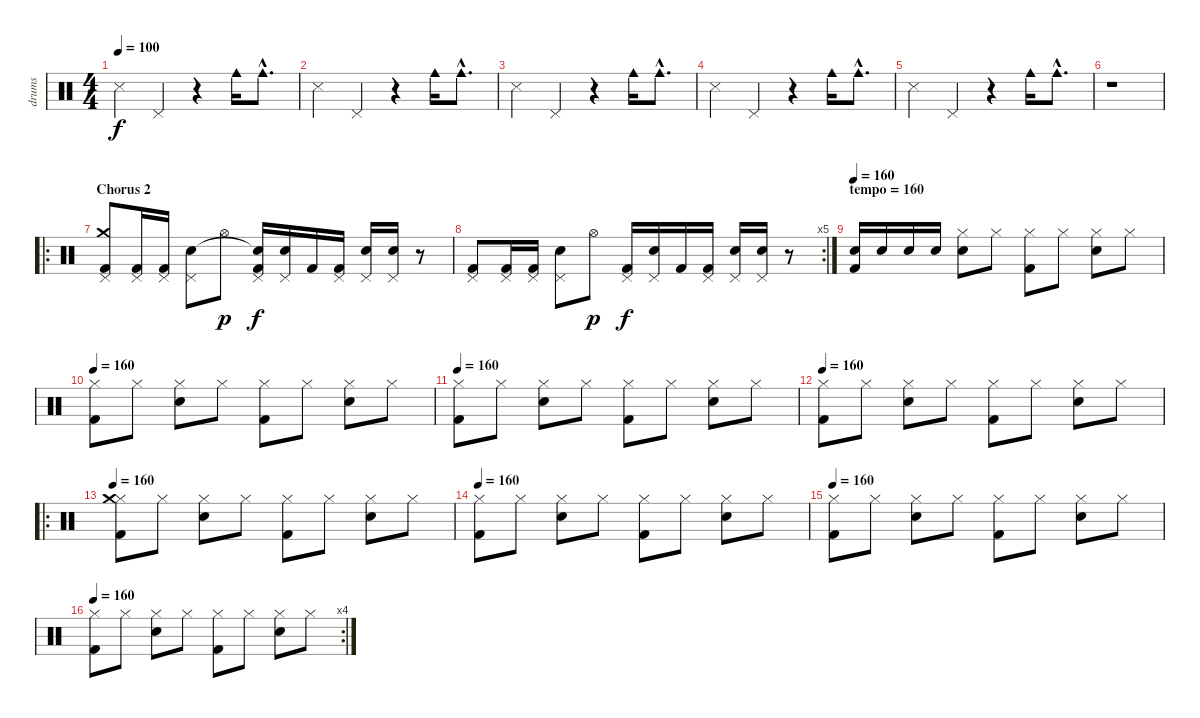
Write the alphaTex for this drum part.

\track ("drums" "drums") {instrument percussion}
\staff {score}
\articulation defaults
\ts (4 4)
\tempo 100
\clef neutral
\ks c "Snare (side stick) 3".4{dy f} "Pedal Hi-Hat (hit)".4
r.4 "Cowbell medium (hit)".16 "Cowbell medium (hit)"{hac}.8{d} |
"Snare (side stick) 3".4 "Pedal Hi-Hat (hit)".4 r.4 "Cowbell medium (hit)".16 "Cowbell medium (hit)"{hac}.8{d} |
"Snare (side stick) 3".4 "Pedal Hi-Hat (hit)".4 r.4 "Cowbell medium (hit)".16 "Cowbell medium (hit)"{hac}.8{d} |
"Snare (side stick) 3".4 "Pedal Hi-Hat (hit)".4 r.4 "Cowbell medium (hit)".16 "Cowbell medium (hit)"{hac}.8{d} |
"Snare (side stick) 3".4 "Pedal Hi-Hat (hit)".4 r.4 "Cowbell medium (hit)".16 "Cowbell medium (hit)"{hac}.8{d} |
r.1 |
\ro
\section ("" "Chorus 2")
("Pedal Hi-Hat (hit)" "Crash medium (hit)" "Kick (hit) 2").8 ("Pedal Hi-Hat (hit)" "Kick (hit) 2").16 ("Pedal Hi-Hat (hit)" "Kick (hit) 2").16 ("Pedal Hi-Hat (hit)" "Electric Snare (hit)").8 "Hi-Hat (open)".8{dy p} ("Pedal Hi-Hat (hit)" "Snare (hit)"{t} "Kick (hit) 2").16{dy f} ("Pedal Hi-Hat (hit)" "Electric Snare (hit)").16 "Kick (hit) 2".16 ("Pedal Hi-Hat (hit)" "Kick (hit) 2").16 ("Pedal Hi-Hat (hit)" "Electric Snare (hit)").16 ("Pedal Hi-Hat (hit)" "Electric Snare (hit)").16 r.8 |
\rc 5
("Pedal Hi-Hat (hit)" "Kick (hit) 2").8 ("Pedal Hi-Hat (hit)" "Kick (hit) 2").16 ("Pedal Hi-Hat (hit)" "Kick (hit) 2").16 ("Pedal Hi-Hat (hit)" "Electric Snare (hit)").8 "Hi-Hat (open)".8{dy p} ("Pedal Hi-Hat (hit)" "Kick (hit) 2").16{dy f} ("Pedal Hi-Hat (hit)" "Electric Snare (hit)").16 "Kick (hit) 2".16 ("Pedal Hi-Hat (hit)" "Kick (hit) 2").16 ("Pedal Hi-Hat (hit)" "Electric Snare (hit)").16 ("Pedal Hi-Hat (hit)" "Electric Snare (hit)").16 r.8 |
\section ("" "tempo = 160")
\tempo 160
("Electric Snare (hit)" "Kick (hit) 2").16 "Electric Snare (hit)".16 "Electric Snare (hit)".16 "Electric Snare (hit)".16 ("Hi-Hat (closed)" "Electric Snare (hit)").8 "Hi-Hat (closed)".8 ("Hi-Hat (closed)" "Kick (hit) 2").8 "Hi-Hat (closed)".8 ("Hi-Hat (closed)" "Electric Snare (hit)").8 "Hi-Hat (closed)".8 |
\tempo 160
("Hi-Hat (closed)" "Kick (hit) 2").8 "Hi-Hat (closed)".8 ("Hi-Hat (closed)" "Electric Snare (hit)").8 "Hi-Hat (closed)".8 ("Hi-Hat (closed)" "Kick (hit) 2").8 "Hi-Hat (closed)".8 ("Hi-Hat (closed)" "Electric Snare (hit)").8 "Hi-Hat (closed)".8 |
\tempo 160
("Hi-Hat (closed)" "Kick (hit) 2").8 "Hi-Hat (closed)".8 ("Hi-Hat (closed)" "Electric Snare (hit)").8 "Hi-Hat (closed)".8 ("Hi-Hat (closed)" "Kick (hit) 2").8 "Hi-Hat (closed)".8 ("Hi-Hat (closed)" "Electric Snare (hit)").8 "Hi-Hat (closed)".8 |
\tempo 160
("Hi-Hat (closed)" "Kick (hit) 2").8 "Hi-Hat (closed)".8 ("Hi-Hat (closed)" "Electric Snare (hit)").8 "Hi-Hat (closed)".8 ("Hi-Hat (closed)" "Kick (hit) 2").8 "Hi-Hat (closed)".8 ("Hi-Hat (closed)" "Electric Snare (hit)").8 "Hi-Hat (closed)".8 |
\ro
\tempo 160
("Hi-Hat (closed)" "Crash medium (hit)" "Kick (hit) 2").8 "Hi-Hat (closed)".8 ("Hi-Hat (closed)" "Electric Snare (hit)").8 "Hi-Hat (closed)".8 ("Hi-Hat (closed)" "Kick (hit) 2").8 "Hi-Hat (closed)".8 ("Hi-Hat (closed)" "Electric Snare (hit)").8 "Hi-Hat (closed)".8 |
\tempo 160
("Hi-Hat (closed)" "Kick (hit) 2").8 "Hi-Hat (closed)".8 ("Hi-Hat (closed)" "Electric Snare (hit)").8 "Hi-Hat (closed)".8 ("Hi-Hat (closed)" "Kick (hit) 2").8 "Hi-Hat (closed)".8 ("Hi-Hat (closed)" "Electric Snare (hit)").8 "Hi-Hat (closed)".8 |
\tempo 160
("Hi-Hat (closed)" "Kick (hit) 2").8 "Hi-Hat (closed)".8 ("Hi-Hat (closed)" "Electric Snare (hit)").8 "Hi-Hat (closed)".8 ("Hi-Hat (closed)" "Kick (hit) 2").8 "Hi-Hat (closed)".8 ("Hi-Hat (closed)" "Electric Snare (hit)").8 "Hi-Hat (closed)".8 |
\rc 4
\tempo 160
("Hi-Hat (closed)" "Kick (hit) 2").8 "Hi-Hat (closed)".8 ("Hi-Hat (closed)" "Electric Snare (hit)").8 "Hi-Hat (closed)".8 ("Hi-Hat (closed)" "Kick (hit) 2").8 "Hi-Hat (closed)".8 ("Hi-Hat (closed)" "Electric Snare (hit)").8 "Hi-Hat (closed)".8
